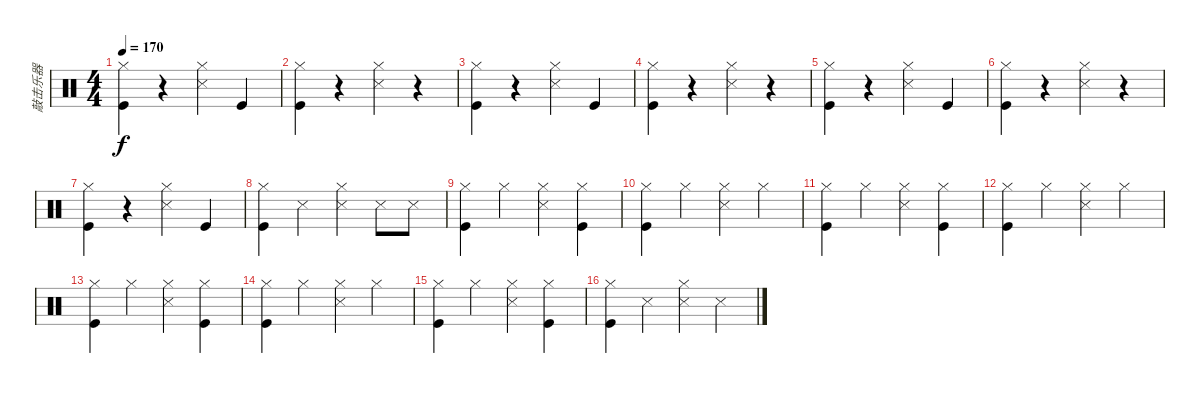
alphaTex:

\track ("敲击乐器" "敲击乐器") {instrument percussion}
\staff {score}
\articulation defaults
\ts (4 4)
\tempo 170
\clef neutral
\ks c
("Hi-Hat (closed)" "Kick (hit)").4{dy f} r.4 ("Hi-Hat (closed)" "Snare (side stick) 3").4 "Kick (hit)".4 |
("Hi-Hat (closed)" "Kick (hit)").4 r.4 ("Hi-Hat (closed)" "Snare (side stick) 3").4 r.4 |
("Hi-Hat (closed)" "Kick (hit)").4 r.4 ("Hi-Hat (closed)" "Snare (side stick) 3").4 "Kick (hit)".4 |
("Hi-Hat (closed)" "Kick (hit)").4 r.4 ("Hi-Hat (closed)" "Snare (side stick) 3").4 r.4 |
("Hi-Hat (closed)" "Kick (hit)").4 r.4 ("Hi-Hat (closed)" "Snare (side stick) 3").4 "Kick (hit)".4 |
("Hi-Hat (closed)" "Kick (hit)").4 r.4 ("Hi-Hat (closed)" "Snare (side stick) 3").4 r.4 |
("Hi-Hat (closed)" "Kick (hit)").4 r.4 ("Hi-Hat (closed)" "Snare (side stick) 3").4 "Kick (hit)".4 |
("Hi-Hat (closed)" "Kick (hit)").4 "Snare (side stick) 3".4 ("Hi-Hat (closed)" "Snare (side stick) 3").4 "Snare (side stick) 3".8 "Snare (side stick) 3".8 |
("Hi-Hat (closed)" "Kick (hit)").4 "Hi-Hat (closed)".4 ("Hi-Hat (closed)" "Snare (side stick) 3").4 ("Hi-Hat (closed)" "Kick (hit)").4 |
("Hi-Hat (closed)" "Kick (hit)").4 "Hi-Hat (closed)".4 ("Hi-Hat (closed)" "Snare (side stick) 3").4 "Hi-Hat (closed)".4 |
("Hi-Hat (closed)" "Kick (hit)").4 "Hi-Hat (closed)".4 ("Hi-Hat (closed)" "Snare (side stick) 3").4 ("Hi-Hat (closed)" "Kick (hit)").4 |
("Hi-Hat (closed)" "Kick (hit)").4 "Hi-Hat (closed)".4 ("Hi-Hat (closed)" "Snare (side stick) 3").4 "Hi-Hat (closed)".4 |
("Hi-Hat (closed)" "Kick (hit)").4 "Hi-Hat (closed)".4 ("Hi-Hat (closed)" "Snare (side stick) 3").4 ("Hi-Hat (closed)" "Kick (hit)").4 |
("Hi-Hat (closed)" "Kick (hit)").4 "Hi-Hat (closed)".4 ("Hi-Hat (closed)" "Snare (side stick) 3").4 "Hi-Hat (closed)".4 |
("Hi-Hat (closed)" "Kick (hit)").4 "Hi-Hat (closed)".4 ("Hi-Hat (closed)" "Snare (side stick) 3").4 ("Hi-Hat (closed)" "Kick (hit)").4 |
("Hi-Hat (closed)" "Kick (hit)").4 "Snare (side stick) 3".4 ("Hi-Hat (closed)" "Snare (side stick) 3").4 "Snare (side stick) 3".4
